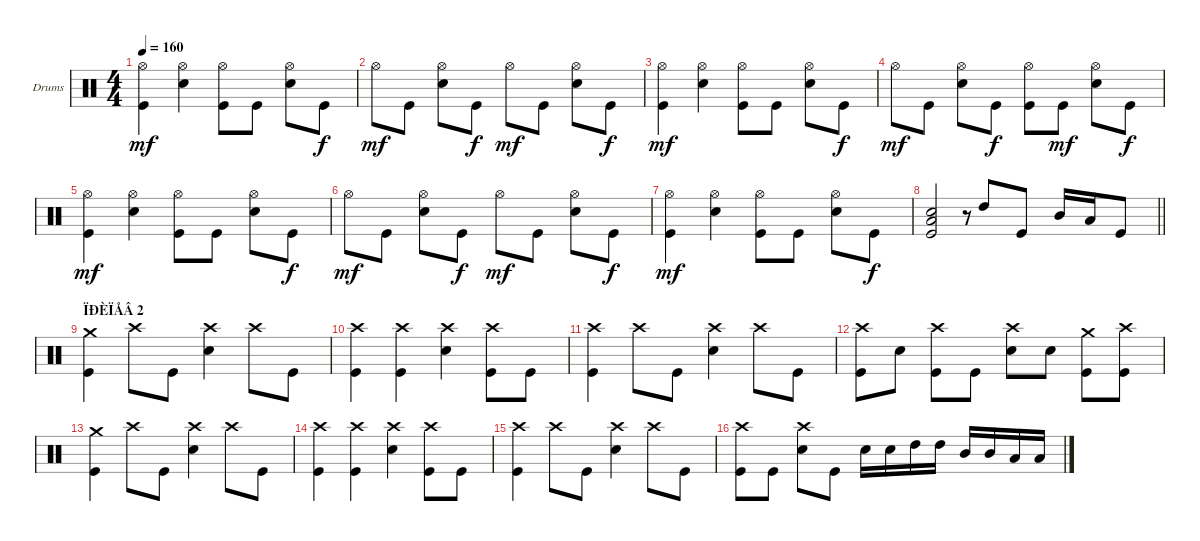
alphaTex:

\bracketExtendMode groupsimilarinstruments
\firstSystemTrackNameOrientation horizontal
\otherSystemsTrackNameOrientation horizontal
\track ("Drumkit" "Drums") {instrument percussion}
\staff {score}
\articulation defaults
\ts (4 4)
\tempo 160
\clef neutral
\ks c
("Kick (hit)" "Hi-Hat (open)").4{dy mf} ("Snare (hit) 2" "Hi-Hat (open)").4 ("Kick (hit)" "Hi-Hat (open)").8 "Kick (hit)".8 ("Snare (hit) 2" "Hi-Hat (open)").8 "Kick (hit)".8{dy f} |
"Hi-Hat (open)".8{dy mf} "Kick (hit)".8 ("Snare (hit) 2" "Hi-Hat (open)").8 "Kick (hit)".8{dy f} "Hi-Hat (open)".8{dy mf} "Kick (hit)".8 ("Snare (hit) 2" "Hi-Hat (open)").8 "Kick (hit)".8{dy f} |
("Kick (hit)" "Hi-Hat (open)").4{dy mf} ("Snare (hit) 2" "Hi-Hat (open)").4 ("Kick (hit)" "Hi-Hat (open)").8 "Kick (hit)".8 ("Snare (hit) 2" "Hi-Hat (open)").8 "Kick (hit)".8{dy f} |
"Hi-Hat (open)".8{dy mf} "Kick (hit)".8 ("Snare (hit) 2" "Hi-Hat (open)").8 "Kick (hit)".8{dy f} ("Kick (hit)" "Hi-Hat (open)").8 "Kick (hit)".8{dy mf} ("Snare (hit) 2" "Hi-Hat (open)").8 "Kick (hit)".8{dy f} |
("Kick (hit)" "Hi-Hat (open)").4{dy mf} ("Snare (hit) 2" "Hi-Hat (open)").4 ("Kick (hit)" "Hi-Hat (open)").8 "Kick (hit)".8 ("Snare (hit) 2" "Hi-Hat (open)").8 "Kick (hit)".8{dy f} |
"Hi-Hat (open)".8{dy mf} "Kick (hit)".8 ("Snare (hit) 2" "Hi-Hat (open)").8 "Kick (hit)".8{dy f} "Hi-Hat (open)".8{dy mf} "Kick (hit)".8 ("Snare (hit) 2" "Hi-Hat (open)").8 "Kick (hit)".8{dy f} |
("Kick (hit)" "Hi-Hat (open)").4{dy mf} ("Snare (hit) 2" "Hi-Hat (open)").4 ("Kick (hit)" "Hi-Hat (open)").8 "Kick (hit)".8 ("Snare (hit) 2" "Hi-Hat (open)").8 "Kick (hit)".8{dy f} |
\barLineRight lightlight
("Low Tom (hit)" "Snare (hit) 2" "Kick (hit)").2 r.8{gr} "High Tom (hit)".8 "Kick (hit)".8 "Mid Tom (hit)".16 "Low Tom (hit)".16 "Kick (hit)".8 |
\section ("" "ÏÐÈÏÅÂ 2")
("Kick (hit)" "Crash medium (hit)").4 "Crash high (hit)".8 "Kick (hit)".8 ("Crash high (hit)" "Snare (hit) 2").4 "Crash high (hit)".8 "Kick (hit)".8 |
("Crash high (hit)" "Kick (hit)").4 ("Crash high (hit)" "Kick (hit)").4 ("Crash high (hit)" "Snare (hit) 2").4 ("Crash high (hit)" "Kick (hit)").8 "Kick (hit)".8 |
("Kick (hit)" "Crash high (hit)").4 "Crash high (hit)".8 "Kick (hit)".8 ("Crash high (hit)" "Snare (hit) 2").4 "Crash high (hit)".8 "Kick (hit)".8 |
("Crash high (hit)" "Kick (hit)").8 "Snare (hit) 2".8 ("Crash high (hit)" "Kick (hit)").8 "Kick (hit)".8 ("Crash high (hit)" "Snare (hit) 2").8 "Snare (hit) 2".8 ("Crash medium (hit)" "Kick (hit)").8 ("Crash high (hit)" "Kick (hit)").8 |
("Kick (hit)" "Crash medium (hit)").4 "Crash high (hit)".8 "Kick (hit)".8 ("Crash high (hit)" "Snare (hit) 2").4 "Crash high (hit)".8 "Kick (hit)".8 |
("Crash high (hit)" "Kick (hit)").4 ("Crash high (hit)" "Kick (hit)").4 ("Crash high (hit)" "Snare (hit) 2").4 ("Crash high (hit)" "Kick (hit)").8 "Kick (hit)".8 |
("Kick (hit)" "Crash high (hit)").4 "Crash high (hit)".8 "Kick (hit)".8 ("Crash high (hit)" "Snare (hit) 2").4 "Crash high (hit)".8 "Kick (hit)".8 |
("Crash high (hit)" "Kick (hit)").8 "Kick (hit)".8 ("Crash high (hit)" "Snare (hit) 2").8 "Kick (hit)".8 "Snare (hit) 2".16 "Snare (hit) 2".16 "High Tom (hit)".16 "High Tom (hit)".16 "Mid Tom (hit)".16 "Mid Tom (hit)".16 "Low Tom (hit)".16 "Low Tom (hit)".16
